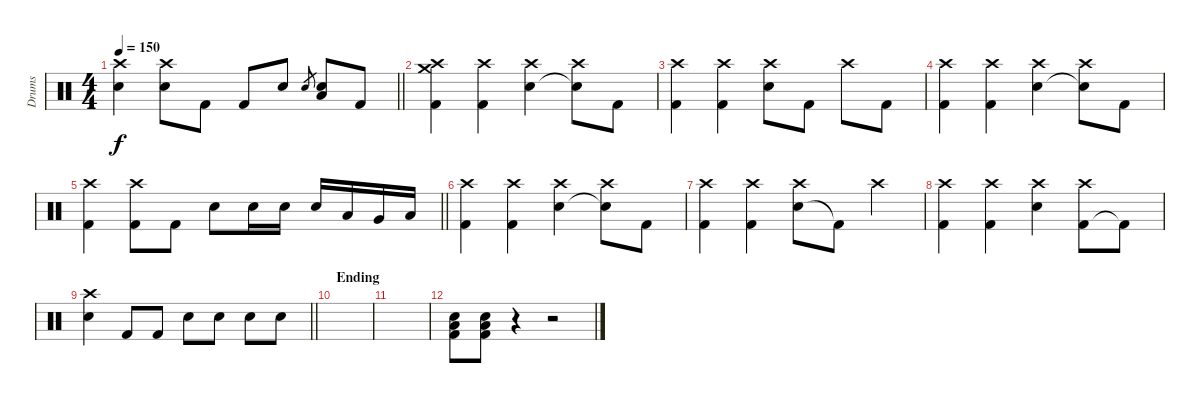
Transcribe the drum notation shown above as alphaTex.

\track ("Drums" "Drums") {instrument percussion}
\staff {score}
\articulation defaults
\ts (4 4)
\tempo 150
\clef neutral
\barLineRight lightlight
\ks c
("Electric Snare (hit)" "Crash high (hit)").4{dy f} ("Electric Snare (hit)" "Crash high (hit)").8 "Kick (hit) 2".8 "Kick (hit) 2".8 "Electric Snare (hit)".8 "Electric Snare (hit)".8{gr} ("Electric Snare (hit)" "Low Floor Tom (hit)").8 "Kick (hit) 2".8 |
("Kick (hit) 2" "Crash medium (hit)" "Crash high (hit)").4 ("Kick (hit) 2" "Crash high (hit)").4 ("Electric Snare (hit)" "Crash high (hit)").4 ("Snare (hit)"{t} "Crash high (hit)").8 "Kick (hit) 2".8 |
("Kick (hit) 2" "Crash high (hit)").4 ("Kick (hit) 2" "Crash high (hit)").4 ("Electric Snare (hit)" "Crash high (hit)").8 "Kick (hit) 2".8 "Crash high (hit)".8 "Kick (hit) 2".8 |
("Kick (hit) 2" "Crash high (hit)").4 ("Kick (hit) 2" "Crash high (hit)").4 ("Electric Snare (hit)" "Crash high (hit)").4 ("Snare (hit)"{t} "Crash high (hit)").8 "Kick (hit) 2".8 |
\barLineRight lightlight
("Kick (hit) 2" "Crash high (hit)").4 ("Kick (hit) 2" "Crash high (hit)").8 "Kick (hit) 2".8 "Electric Snare (hit)".8 "Electric Snare (hit)".16 "Electric Snare (hit)".16 "Electric Snare (hit)".16 "Low Tom (hit)".16 "Very Low Tom (hit)".16 "Low Floor Tom (hit)".16 |
("Kick (hit) 2" "Crash high (hit)").4 ("Kick (hit) 2" "Crash high (hit)").4 ("Electric Snare (hit)" "Crash high (hit)").4 ("Snare (hit)"{t} "Crash high (hit)").8 "Kick (hit) 2".8 |
("Kick (hit) 2" "Crash high (hit)").4 ("Kick (hit) 2" "Crash high (hit)").4 ("Electric Snare (hit)" "Crash high (hit)").8 "Kick (hit) 2"{t}.8 "Crash high (hit)".4 |
("Kick (hit) 2" "Crash high (hit)").4 ("Kick (hit) 2" "Crash high (hit)").4 ("Electric Snare (hit)" "Crash high (hit)").4 ("Kick (hit) 2" "Crash high (hit)").8 "Kick (hit) 2"{t}.8 |
\barLineRight lightlight
("Electric Snare (hit)" "Crash high (hit)").4 "Kick (hit) 2".8 "Kick (hit) 2".8 "Electric Snare (hit)".8 "Electric Snare (hit)".8 "Electric Snare (hit)".8 "Electric Snare (hit)".8 |
\section ("" "Ending")
|
|
("Electric Snare (hit)" "Low Floor Tom (hit)" "Kick (hit) 2").8 ("Electric Snare (hit)" "Low Floor Tom (hit)" "Kick (hit) 2").8 r.4 r.2
